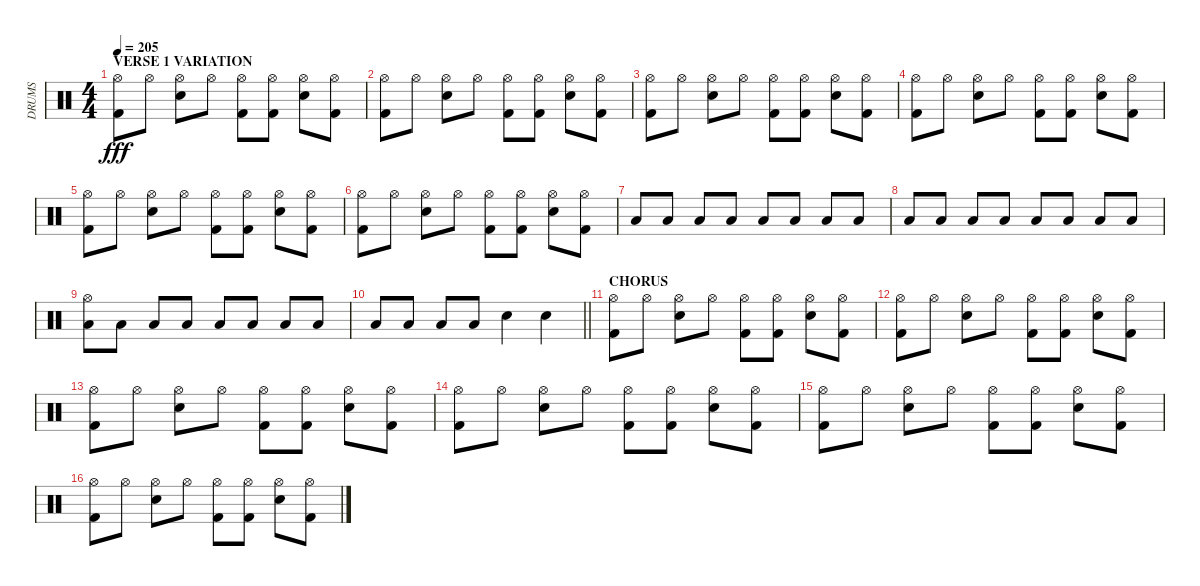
\track ("DRUMS" "DRUMS") {instrument percussion}
\staff {score}
\articulation defaults
\ts (4 4)
\section ("" "VERSE 1 VARIATION")
\tempo 205
\clef neutral
\ks c
("Hi-Hat (open)" "Kick (hit) 2").8{dy fff} "Hi-Hat (open)".8 ("Hi-Hat (open)" "Electric Snare (hit)").8 "Hi-Hat (open)".8 ("Hi-Hat (open)" "Kick (hit) 2").8 ("Hi-Hat (open)" "Kick (hit) 2").8 ("Hi-Hat (open)" "Electric Snare (hit)").8 ("Hi-Hat (open)" "Kick (hit) 2").8 |
("Hi-Hat (open)" "Kick (hit) 2").8 "Hi-Hat (open)".8 ("Hi-Hat (open)" "Electric Snare (hit)").8 "Hi-Hat (open)".8 ("Hi-Hat (open)" "Kick (hit) 2").8 ("Hi-Hat (open)" "Kick (hit) 2").8 ("Hi-Hat (open)" "Electric Snare (hit)").8 ("Hi-Hat (open)" "Kick (hit) 2").8 |
("Hi-Hat (open)" "Kick (hit) 2").8 "Hi-Hat (open)".8 ("Hi-Hat (open)" "Electric Snare (hit)").8 "Hi-Hat (open)".8 ("Hi-Hat (open)" "Kick (hit) 2").8 ("Hi-Hat (open)" "Kick (hit) 2").8 ("Hi-Hat (open)" "Electric Snare (hit)").8 ("Hi-Hat (open)" "Kick (hit) 2").8 |
("Hi-Hat (open)" "Kick (hit) 2").8 "Hi-Hat (open)".8 ("Hi-Hat (open)" "Electric Snare (hit)").8 "Hi-Hat (open)".8 ("Hi-Hat (open)" "Kick (hit) 2").8 ("Hi-Hat (open)" "Kick (hit) 2").8 ("Hi-Hat (open)" "Electric Snare (hit)").8 ("Hi-Hat (open)" "Kick (hit) 2").8 |
("Hi-Hat (open)" "Kick (hit) 2").8 "Hi-Hat (open)".8 ("Hi-Hat (open)" "Electric Snare (hit)").8 "Hi-Hat (open)".8 ("Hi-Hat (open)" "Kick (hit) 2").8 ("Hi-Hat (open)" "Kick (hit) 2").8 ("Hi-Hat (open)" "Electric Snare (hit)").8 ("Hi-Hat (open)" "Kick (hit) 2").8 |
("Hi-Hat (open)" "Kick (hit) 2").8 "Hi-Hat (open)".8 ("Hi-Hat (open)" "Electric Snare (hit)").8 "Hi-Hat (open)".8 ("Hi-Hat (open)" "Kick (hit) 2").8 ("Hi-Hat (open)" "Kick (hit) 2").8 ("Hi-Hat (open)" "Electric Snare (hit)").8 ("Hi-Hat (open)" "Kick (hit) 2").8 |
"Low Floor Tom (hit)".8 "Low Floor Tom (hit)".8 "Low Floor Tom (hit)".8 "Low Floor Tom (hit)".8 "Low Floor Tom (hit)".8 "Low Floor Tom (hit)".8 "Low Floor Tom (hit)".8 "Low Floor Tom (hit)".8 |
"Low Floor Tom (hit)".8 "Low Floor Tom (hit)".8 "Low Floor Tom (hit)".8 "Low Floor Tom (hit)".8 "Low Floor Tom (hit)".8 "Low Floor Tom (hit)".8 "Low Floor Tom (hit)".8 "Low Floor Tom (hit)".8 |
("Hi-Hat (open)" "Low Floor Tom (hit)").8 "Low Floor Tom (hit)".8 "Low Floor Tom (hit)".8 "Low Floor Tom (hit)".8 "Low Floor Tom (hit)".8 "Low Floor Tom (hit)".8 "Low Floor Tom (hit)".8 "Low Floor Tom (hit)".8 |
\barLineRight lightlight "Low Floor Tom (hit)".8 "Low Floor Tom (hit)".8 "Low Floor Tom (hit)".8 "Low Floor Tom (hit)".8 "Electric Snare (hit)".4 "Electric Snare (hit)".4
|
\section ("" "CHORUS")
("Hi-Hat (open)" "Kick (hit) 2").8 "Hi-Hat (open)".8 ("Hi-Hat (open)" "Electric Snare (hit)").8 "Hi-Hat (open)".8 ("Hi-Hat (open)" "Kick (hit) 2").8 ("Hi-Hat (open)" "Kick (hit) 2").8 ("Hi-Hat (open)" "Electric Snare (hit)").8 ("Hi-Hat (open)" "Kick (hit) 2").8 |
("Hi-Hat (open)" "Kick (hit) 2").8 "Hi-Hat (open)".8 ("Hi-Hat (open)" "Electric Snare (hit)").8 "Hi-Hat (open)".8 ("Hi-Hat (open)" "Kick (hit) 2").8 ("Hi-Hat (open)" "Kick (hit) 2").8 ("Hi-Hat (open)" "Electric Snare (hit)").8 ("Hi-Hat (open)" "Kick (hit) 2").8 |
("Hi-Hat (open)" "Kick (hit) 2").8 "Hi-Hat (open)".8 ("Hi-Hat (open)" "Electric Snare (hit)").8 "Hi-Hat (open)".8 ("Hi-Hat (open)" "Kick (hit) 2").8 ("Hi-Hat (open)" "Kick (hit) 2").8 ("Hi-Hat (open)" "Electric Snare (hit)").8 ("Hi-Hat (open)" "Kick (hit) 2").8 |
("Hi-Hat (open)" "Kick (hit) 2").8 "Hi-Hat (open)".8 ("Hi-Hat (open)" "Electric Snare (hit)").8 "Hi-Hat (open)".8 ("Hi-Hat (open)" "Kick (hit) 2").8 ("Hi-Hat (open)" "Kick (hit) 2").8 ("Hi-Hat (open)" "Electric Snare (hit)").8 ("Hi-Hat (open)" "Kick (hit) 2").8 |
("Hi-Hat (open)" "Kick (hit) 2").8 "Hi-Hat (open)".8 ("Hi-Hat (open)" "Electric Snare (hit)").8 "Hi-Hat (open)".8 ("Hi-Hat (open)" "Kick (hit) 2").8 ("Hi-Hat (open)" "Kick (hit) 2").8 ("Hi-Hat (open)" "Electric Snare (hit)").8 ("Hi-Hat (open)" "Kick (hit) 2").8 |
("Hi-Hat (open)" "Kick (hit) 2").8 "Hi-Hat (open)".8 ("Hi-Hat (open)" "Electric Snare (hit)").8 "Hi-Hat (open)".8 ("Hi-Hat (open)" "Kick (hit) 2").8 ("Hi-Hat (open)" "Kick (hit) 2").8 ("Hi-Hat (open)" "Electric Snare (hit)").8 ("Hi-Hat (open)" "Kick (hit) 2").8
